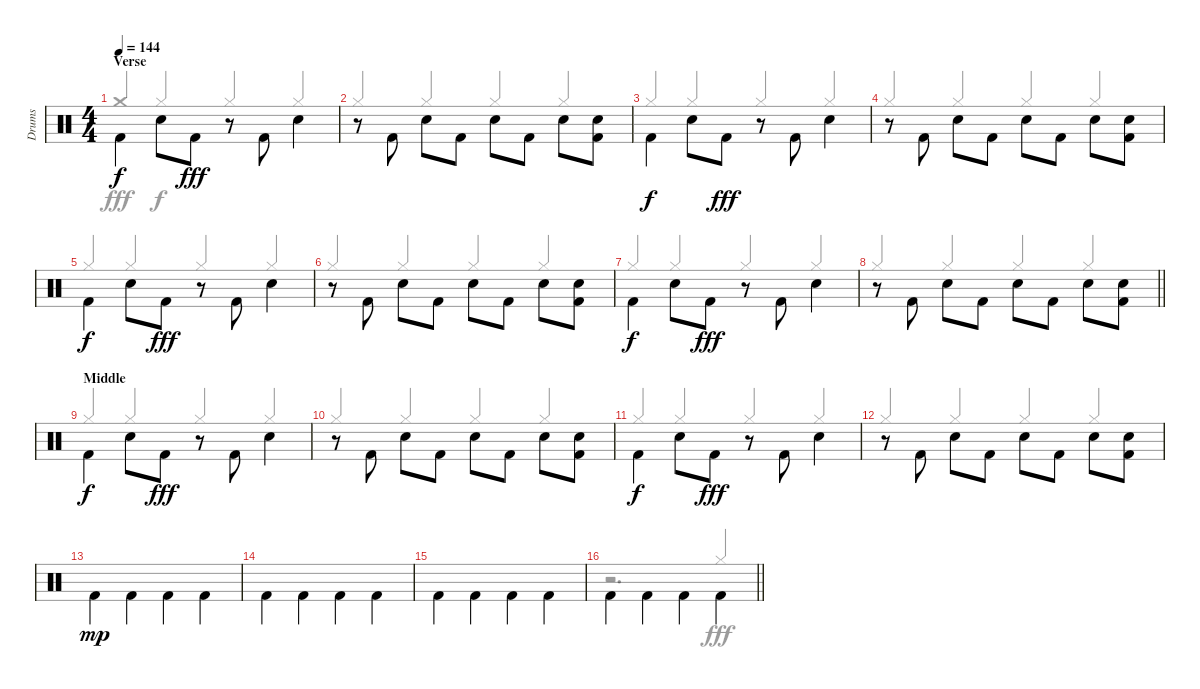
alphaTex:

\track ("Drums" "Drums") {instrument percussion}
\staff {score}
\articulation defaults
\voice
\ts (4 4)
\section ("" "Verse ")
\tempo 144
\clef neutral
\ks c "Kick (hit) 2".4{dy f beam Down} "Snare (hit) 2".8{beam Down} "Kick (hit) 2".8{dy fff beam Down}
r.8 "Kick (hit) 2".8{beam Down} "Snare (hit) 2".4{beam Down} |
r.8 "Kick (hit) 2".8{beam Down} "Snare (hit) 2".8{beam Down} "Kick (hit) 2".8{beam Down} "Snare (hit) 2".8{beam Down} "Kick (hit) 2".8{beam Down} "Snare (hit) 2".8{beam Down} ("Snare (hit) 2" "Kick (hit) 2").8{beam Down} |
"Kick (hit) 2".4{dy f beam Down} "Snare (hit) 2".8{beam Down} "Kick (hit) 2".8{dy fff beam Down} r.8 "Kick (hit) 2".8{beam Down} "Snare (hit) 2".4{beam Down} |
r.8 "Kick (hit) 2".8{beam Down} "Snare (hit) 2".8{beam Down} "Kick (hit) 2".8{beam Down} "Snare (hit) 2".8{beam Down} "Kick (hit) 2".8{beam Down} "Snare (hit) 2".8{beam Down} ("Snare (hit) 2" "Kick (hit) 2").8{beam Down} |
"Kick (hit) 2".4{dy f beam Down} "Snare (hit) 2".8{beam Down} "Kick (hit) 2".8{dy fff beam Down} r.8 "Kick (hit) 2".8{beam Down} "Snare (hit) 2".4{beam Down} |
r.8 "Kick (hit) 2".8{beam Down} "Snare (hit) 2".8{beam Down} "Kick (hit) 2".8{beam Down} "Snare (hit) 2".8{beam Down} "Kick (hit) 2".8{beam Down} "Snare (hit) 2".8{beam Down} ("Snare (hit) 2" "Kick (hit) 2").8{beam Down} |
"Kick (hit) 2".4{dy f beam Down} "Snare (hit) 2".8{beam Down} "Kick (hit) 2".8{dy fff beam Down} r.8 "Kick (hit) 2".8{beam Down} "Snare (hit) 2".4{beam Down} |
\barLineRight lightlight
r.8 "Kick (hit) 2".8{beam Down} "Snare (hit) 2".8{beam Down} "Kick (hit) 2".8{beam Down} "Snare (hit) 2".8{beam Down} "Kick (hit) 2".8{beam Down} "Snare (hit) 2".8{beam Down} ("Snare (hit) 2" "Kick (hit) 2").8{beam Down} |
\section ("" "Middle")
"Kick (hit) 2".4{dy f beam Down} "Snare (hit) 2".8{beam Down} "Kick (hit) 2".8{dy fff beam Down} r.8 "Kick (hit) 2".8{beam Down} "Snare (hit) 2".4{beam Down} |
r.8 "Kick (hit) 2".8{beam Down} "Snare (hit) 2".8{beam Down} "Kick (hit) 2".8{beam Down} "Snare (hit) 2".8{beam Down} "Kick (hit) 2".8{beam Down} "Snare (hit) 2".8{beam Down} ("Snare (hit) 2" "Kick (hit) 2").8{beam Down} |
"Kick (hit) 2".4{dy f beam Down} "Snare (hit) 2".8{beam Down} "Kick (hit) 2".8{dy fff beam Down} r.8 "Kick (hit) 2".8{beam Down} "Snare (hit) 2".4{beam Down} |
r.8 "Kick (hit) 2".8{beam Down} "Snare (hit) 2".8{beam Down} "Kick (hit) 2".8{beam Down} "Snare (hit) 2".8{beam Down} "Kick (hit) 2".8{beam Down} "Snare (hit) 2".8{beam Down} ("Snare (hit) 2" "Kick (hit) 2").8{beam Down} |
"Kick (hit) 2".4{dy mp beam Down} "Kick (hit) 2".4{beam Down} "Kick (hit) 2".4{beam Down} "Kick (hit) 2".4{beam Down} |
"Kick (hit) 2".4{beam Down} "Kick (hit) 2".4{beam Down} "Kick (hit) 2".4{beam Down} "Kick (hit) 2".4{beam Down} |
"Kick (hit) 2".4{beam Down} "Kick (hit) 2".4{beam Down} "Kick (hit) 2".4{beam Down} "Kick (hit) 2".4{beam Down} |
\barLineRight lightlight "Kick (hit) 2".4{beam Down} "Kick (hit) 2".4{beam Down} "Kick (hit) 2".4{beam Down} "Kick (hit) 2".4{beam Down}
\voice
\clef neutral
\ottava regular
\simile none
\ks c "Crash medium (hit)".4{dy fff beam Up} "Hi-Hat (closed)".4{dy f beam Up} "Hi-Hat (closed)".4{beam Up} "Hi-Hat (closed)".4{beam Up}
|
"Hi-Hat (closed)".4{beam Up} "Hi-Hat (closed)".4{beam Up} "Hi-Hat (closed)".4{beam Up} "Hi-Hat (closed)".4{beam Up} |
"Hi-Hat (closed)".4{beam Up} "Hi-Hat (closed)".4{beam Up} "Hi-Hat (closed)".4{beam Up} "Hi-Hat (closed)".4{beam Up} |
"Hi-Hat (closed)".4{beam Up} "Hi-Hat (closed)".4{beam Up} "Hi-Hat (closed)".4{beam Up} "Hi-Hat (closed)".4{beam Up} |
"Hi-Hat (closed)".4{beam Up} "Hi-Hat (closed)".4{beam Up} "Hi-Hat (closed)".4{beam Up} "Hi-Hat (closed)".4{beam Up} |
"Hi-Hat (closed)".4{beam Up} "Hi-Hat (closed)".4{beam Up} "Hi-Hat (closed)".4{beam Up} "Hi-Hat (closed)".4{beam Up} |
"Hi-Hat (closed)".4{beam Up} "Hi-Hat (closed)".4{beam Up} "Hi-Hat (closed)".4{beam Up} "Hi-Hat (closed)".4{beam Up} |
\barLineRight lightlight "Hi-Hat (closed)".4{beam Up} "Hi-Hat (closed)".4{beam Up} "Hi-Hat (closed)".4{beam Up} "Hi-Hat (closed)".4{beam Up}
|
"Hi-Hat (closed)".4{beam Up} "Hi-Hat (closed)".4{beam Up} "Hi-Hat (closed)".4{beam Up} "Hi-Hat (closed)".4{beam Up} |
"Hi-Hat (closed)".4{beam Up} "Hi-Hat (closed)".4{beam Up} "Hi-Hat (closed)".4{beam Up} "Hi-Hat (closed)".4{beam Up} |
"Hi-Hat (closed)".4{beam Up} "Hi-Hat (closed)".4{beam Up} "Hi-Hat (closed)".4{beam Up} "Hi-Hat (closed)".4{beam Up} |
"Hi-Hat (closed)".4{beam Up} "Hi-Hat (closed)".4{beam Up} "Hi-Hat (closed)".4{beam Up} "Hi-Hat (closed)".4{beam Up} |
|
|
|
\barLineRight lightlight
r.2{d} "Hi-Hat (closed)".4{dy fff beam Up}
